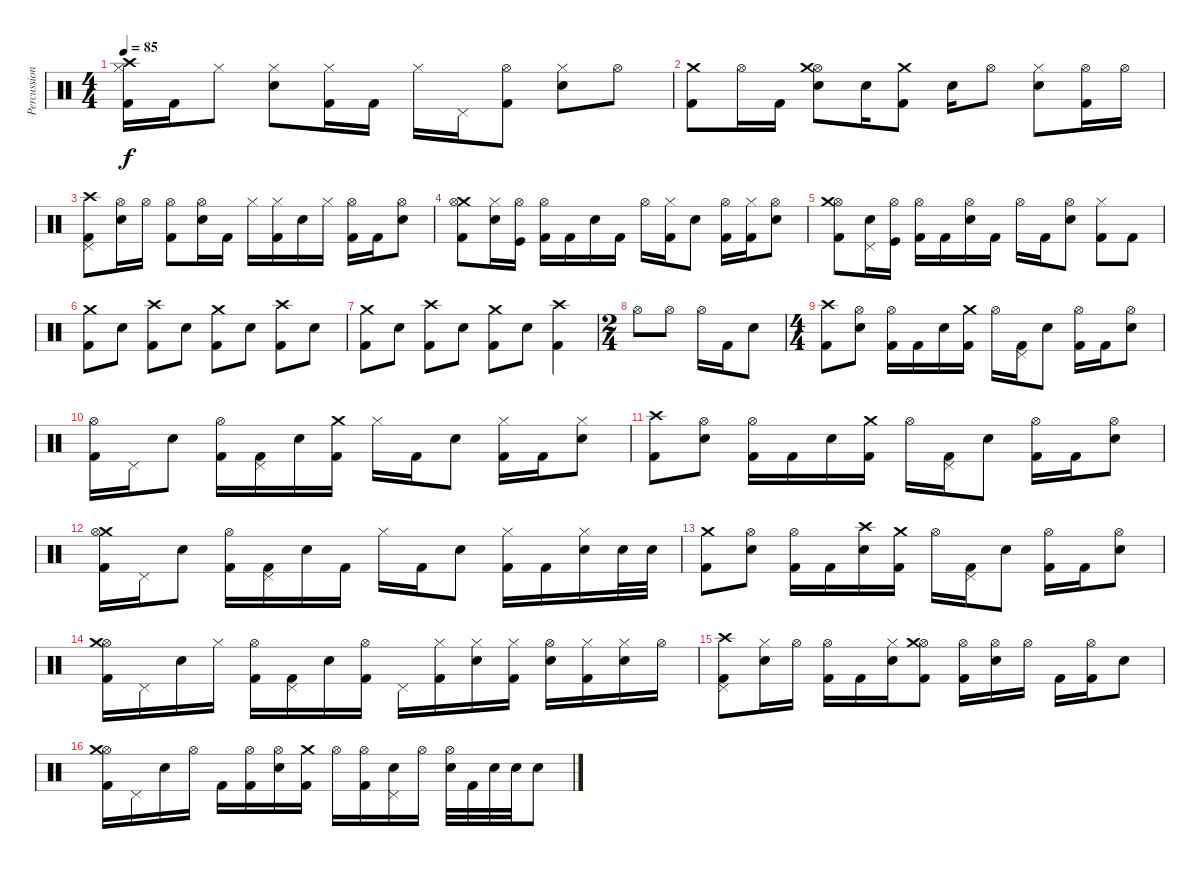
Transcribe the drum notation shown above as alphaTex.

\track ("Percussion" "Percussion") {instrument percussion}
\staff {score}
\articulation defaults
\ts (4 4)
\tempo 85
\clef neutral
\ks c
("Crash high (hit)" "Hi-Hat (closed)" "Kick (hit) 2").16{dy f} "Kick (hit) 2".16 "Hi-Hat (closed)".8 ("Hi-Hat (closed)" "Snare (hit) 2").8 ("Hi-Hat (closed)" "Kick (hit) 2").16 "Kick (hit) 2".16 "Hi-Hat (closed)".16 "Pedal Hi-Hat (hit)".16 ("Hi-Hat (open)" "Kick (hit) 2").8 ("Hi-Hat (closed)" "Snare (hit) 2").8 "Hi-Hat (open)".8 |
("Crash medium (hit)" "Kick (hit) 2").8 "Hi-Hat (open)".16 "Kick (hit) 2".16 ("Hi-Hat (open)" "Crash medium (hit)" "Snare (hit) 2").8 "Snare (hit) 2".16 ("Crash medium (hit)" "Kick (hit) 2").8 "Snare (hit) 2".16 "Hi-Hat (open)".8 ("Hi-Hat (closed)" "Snare (hit) 2").8 ("Hi-Hat (open)" "Kick (hit) 2").16 "Hi-Hat (open)".16 |
("Crash high (hit)" "Kick (hit) 2" "Pedal Hi-Hat (hit)").8 ("Hi-Hat (open)" "Snare (hit) 2").16 "Hi-Hat (open)".16 ("Hi-Hat (open)" "Kick (hit) 2").8 ("Hi-Hat (open)" "Snare (hit) 2").16 "Kick (hit) 2".16 "Hi-Hat (closed)".16 ("Hi-Hat (closed)" "Kick (hit) 2").16 "Snare (hit) 2".16 "Hi-Hat (closed)".16 ("Kick (hit) 2" "Hi-Hat (open)").16 "Kick (hit) 2".16 ("Snare (hit) 2" "Hi-Hat (open)").8 |
("Crash medium (hit)" "Kick (hit) 2" "Hi-Hat (open)").8 ("Snare (hit) 2" "Hi-Hat (closed)").16 ("Hi-Hat (open)" "Kick (hit)").16 ("Kick (hit) 2" "Hi-Hat (open)").16 "Kick (hit) 2".16 "Snare (hit) 2".16 "Kick (hit) 2".16 "Hi-Hat (open)".16 ("Hi-Hat (closed)" "Kick (hit) 2").16 "Snare (hit) 2".8 ("Hi-Hat (open)" "Kick (hit) 2").16 ("Hi-Hat (closed)" "Kick (hit) 2").16 ("Hi-Hat (open)" "Snare (hit) 2").8 |
("Hi-Hat (open)" "Kick (hit) 2" "Crash medium (hit)").8 ("Snare (hit) 2" "Pedal Hi-Hat (hit)").16 ("Hi-Hat (open)" "Kick (hit)").16 ("Hi-Hat (open)" "Kick (hit) 2").16 "Kick (hit) 2".16 ("Hi-Hat (open)" "Snare (hit) 2").16 "Kick (hit) 2".16 "Hi-Hat (open)".16 "Kick (hit) 2".16 ("Hi-Hat (open)" "Snare (hit) 2").8 ("Hi-Hat (closed)" "Kick (hit) 2").8 "Kick (hit) 2".8 |
("Crash medium (hit)" "Kick (hit) 2").8 "Snare (hit) 2".8 ("Kick (hit) 2" "Crash high (hit)").8 "Snare (hit) 2".8 ("Kick (hit) 2" "Crash medium (hit)").8 "Snare (hit) 2".8 ("Kick (hit) 2" "Crash high (hit)").8 "Snare (hit) 2".8 |
("Crash medium (hit)" "Kick (hit) 2").8 "Snare (hit) 2".8 ("Crash high (hit)" "Kick (hit) 2").8 "Snare (hit) 2".8 ("Crash medium (hit)" "Kick (hit) 2").8 "Snare (hit) 2".8 ("Crash high (hit)" "Kick (hit) 2").4 |
\ts (2 4)
"Hi-Hat (open)".8 "Hi-Hat (open)".8 "Hi-Hat (open)".16 "Kick (hit) 2".16 "Snare (hit) 2".8 |
\ts (4 4)
("Crash high (hit)" "Kick (hit) 2").8 ("Hi-Hat (open)" "Snare (hit) 2").8 ("Hi-Hat (open)" "Kick (hit) 2").16 "Kick (hit) 2".16 "Snare (hit) 2".16 ("Crash medium (hit)" "Kick (hit) 2").16 "Hi-Hat (open)".16 ("Pedal Hi-Hat (hit)" "Kick (hit) 2").16 "Snare (hit) 2".8 ("Hi-Hat (open)" "Kick (hit) 2").16 "Kick (hit) 2".16 ("Hi-Hat (open)" "Snare (hit) 2").8 |
("Hi-Hat (open)" "Kick (hit) 2").16 "Pedal Hi-Hat (hit)".16 "Snare (hit) 2".8 ("Hi-Hat (open)" "Kick (hit) 2").16 ("Pedal Hi-Hat (hit)" "Kick (hit) 2").16 "Snare (hit) 2".16 ("Crash medium (hit)" "Kick (hit) 2").16 "Hi-Hat (closed)".16 "Kick (hit) 2".16 "Snare (hit) 2".8 ("Hi-Hat (closed)" "Kick (hit) 2").16 "Kick (hit) 2".16 ("Hi-Hat (closed)" "Snare (hit) 2").8 |
("Crash high (hit)" "Kick (hit) 2").8 ("Hi-Hat (open)" "Snare (hit) 2").8 ("Hi-Hat (open)" "Kick (hit) 2").16 "Kick (hit) 2".16 "Snare (hit) 2".16 ("Crash medium (hit)" "Kick (hit) 2").16 "Hi-Hat (open)".16 ("Pedal Hi-Hat (hit)" "Kick (hit) 2").16 "Snare (hit) 2".8 ("Hi-Hat (open)" "Kick (hit) 2").16 "Kick (hit) 2".16 ("Hi-Hat (open)" "Snare (hit) 2").8 |
("Crash medium (hit)" "Hi-Hat (open)" "Kick (hit) 2").16 "Pedal Hi-Hat (hit)".16 "Snare (hit) 2".8 ("Hi-Hat (open)" "Kick (hit) 2").16 ("Pedal Hi-Hat (hit)" "Kick (hit) 2").16 "Snare (hit) 2".16 "Kick (hit) 2".16 "Hi-Hat (closed)".16 "Kick (hit) 2".16 "Snare (hit) 2".8 ("Hi-Hat (closed)" "Kick (hit) 2").16 "Kick (hit) 2".16 ("Hi-Hat (closed)" "Snare (hit) 2").16 "Snare (hit) 2".32 "Snare (hit) 2".32 |
("Crash medium (hit)" "Kick (hit) 2").8 ("Hi-Hat (open)" "Snare (hit) 2").8 ("Hi-Hat (open)" "Kick (hit) 2").16 "Kick (hit) 2".16 ("Crash high (hit)" "Snare (hit) 2").16 ("Crash medium (hit)" "Kick (hit) 2").16 "Hi-Hat (open)".16 ("Pedal Hi-Hat (hit)" "Kick (hit) 2").16 "Snare (hit) 2".8 ("Hi-Hat (open)" "Kick (hit) 2").16 "Kick (hit) 2".16 ("Hi-Hat (open)" "Snare (hit) 2").8 |
("Hi-Hat (open)" "Crash medium (hit)" "Kick (hit) 2").16 "Pedal Hi-Hat (hit)".16 "Snare (hit) 2".16 "Hi-Hat (closed)".16 ("Hi-Hat (open)" "Kick (hit) 2").16 ("Pedal Hi-Hat (hit)" "Kick (hit) 2").16 "Snare (hit) 2".16 ("Hi-Hat (open)" "Kick (hit) 2").16 "Pedal Hi-Hat (hit)".16 ("Hi-Hat (closed)" "Kick (hit) 2").16 ("Hi-Hat (closed)" "Snare (hit) 2").16 ("Hi-Hat (closed)" "Kick (hit) 2").16 ("Hi-Hat (open)" "Snare (hit) 2").16 ("Hi-Hat (closed)" "Kick (hit) 2").16 ("Hi-Hat (closed)" "Snare (hit) 2").16 "Hi-Hat (open)".16 |
("Kick (hit) 2" "Crash high (hit)" "Pedal Hi-Hat (hit)").8 ("Hi-Hat (closed)" "Snare (hit) 2").16 "Hi-Hat (open)".16 ("Hi-Hat (open)" "Kick (hit) 2").16 "Kick (hit) 2".16 ("Hi-Hat (closed)" "Snare (hit) 2").16 ("Hi-Hat (open)" "Kick (hit) 2" "Crash medium (hit)").8 ("Hi-Hat (open)" "Kick (hit) 2").16 ("Hi-Hat (open)" "Snare (hit) 2").16 "Hi-Hat (open)".16 "Kick (hit) 2".16 ("Hi-Hat (open)" "Kick (hit) 2").16 "Snare (hit) 2".8 |
("Hi-Hat (open)" "Kick (hit) 2" "Crash medium (hit)").16 "Pedal Hi-Hat (hit)".16 "Snare (hit) 2".16 "Hi-Hat (open)".16 "Kick (hit) 2".16 ("Hi-Hat (open)" "Kick (hit) 2").16 ("Hi-Hat (open)" "Snare (hit) 2").16 ("Crash medium (hit)" "Kick (hit) 2").16 "Hi-Hat (open)".16 ("Hi-Hat (open)" "Kick (hit) 2").16 ("Pedal Hi-Hat (hit)" "Snare (hit) 2").16 "Hi-Hat (open)".16 ("Hi-Hat (open)" "Electric Snare (hit)").32 "Kick (hit) 2".32 "Electric Snare (hit)".32 "Electric Snare (hit)".32 "Electric Snare (hit)".8
